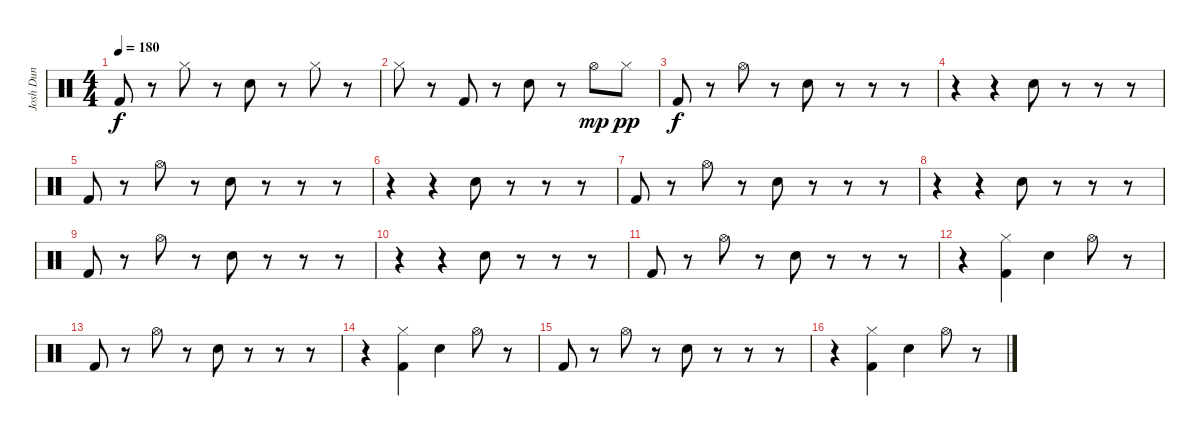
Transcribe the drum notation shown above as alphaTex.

\track ("Josh Dun" "Josh Dun") {instrument percussion}
\staff {score}
\articulation defaults
\ts (4 4)
\tempo 180
\clef neutral
\ks c "Kick (hit) 2".8{dy f}
r.8 "Hi-Hat (closed)".8 r.8 "Snare (hit) 2".8 r.8 "Hi-Hat (closed)".8 r.8 |
"Hi-Hat (closed)".8 r.8 "Kick (hit) 2".8 r.8 "Snare (hit) 2".8 r.8 "Hi-Hat (open)".8{dy mp} "Hi-Hat (closed)".8{dy pp} |
"Kick (hit) 2".8{dy f} r.8 "Hi-Hat (open)".8 r.8 "Snare (hit) 2".8 r.8 r.8 r.8 |
r.4 r.4 "Snare (hit) 2".8 r.8 r.8 r.8 |
"Kick (hit) 2".8 r.8 "Hi-Hat (open)".8 r.8 "Snare (hit) 2".8 r.8 r.8 r.8 |
r.4 r.4 "Snare (hit) 2".8 r.8 r.8 r.8 |
"Kick (hit) 2".8 r.8 "Hi-Hat (open)".8 r.8 "Snare (hit) 2".8 r.8 r.8 r.8 |
r.4 r.4 "Snare (hit) 2".8 r.8 r.8 r.8 |
"Kick (hit) 2".8 r.8 "Hi-Hat (open)".8 r.8 "Snare (hit) 2".8 r.8 r.8 r.8 |
r.4 r.4 "Snare (hit) 2".8 r.8 r.8 r.8 |
"Kick (hit) 2".8 r.8 "Hi-Hat (open)".8 r.8 "Snare (hit) 2".8 r.8 r.8 r.8 |
r.4 ("Hi-Hat (closed)" "Kick (hit) 2").4 "Snare (hit) 2".4 "Hi-Hat (open)".8 r.8 |
"Kick (hit) 2".8 r.8 "Hi-Hat (open)".8 r.8 "Snare (hit) 2".8 r.8 r.8 r.8 |
r.4 ("Hi-Hat (closed)" "Kick (hit) 2").4 "Snare (hit) 2".4 "Hi-Hat (open)".8 r.8 |
"Kick (hit) 2".8 r.8 "Hi-Hat (open)".8 r.8 "Snare (hit) 2".8 r.8 r.8 r.8 |
r.4 ("Hi-Hat (closed)" "Kick (hit) 2").4 "Snare (hit) 2".4 "Hi-Hat (open)".8 r.8
